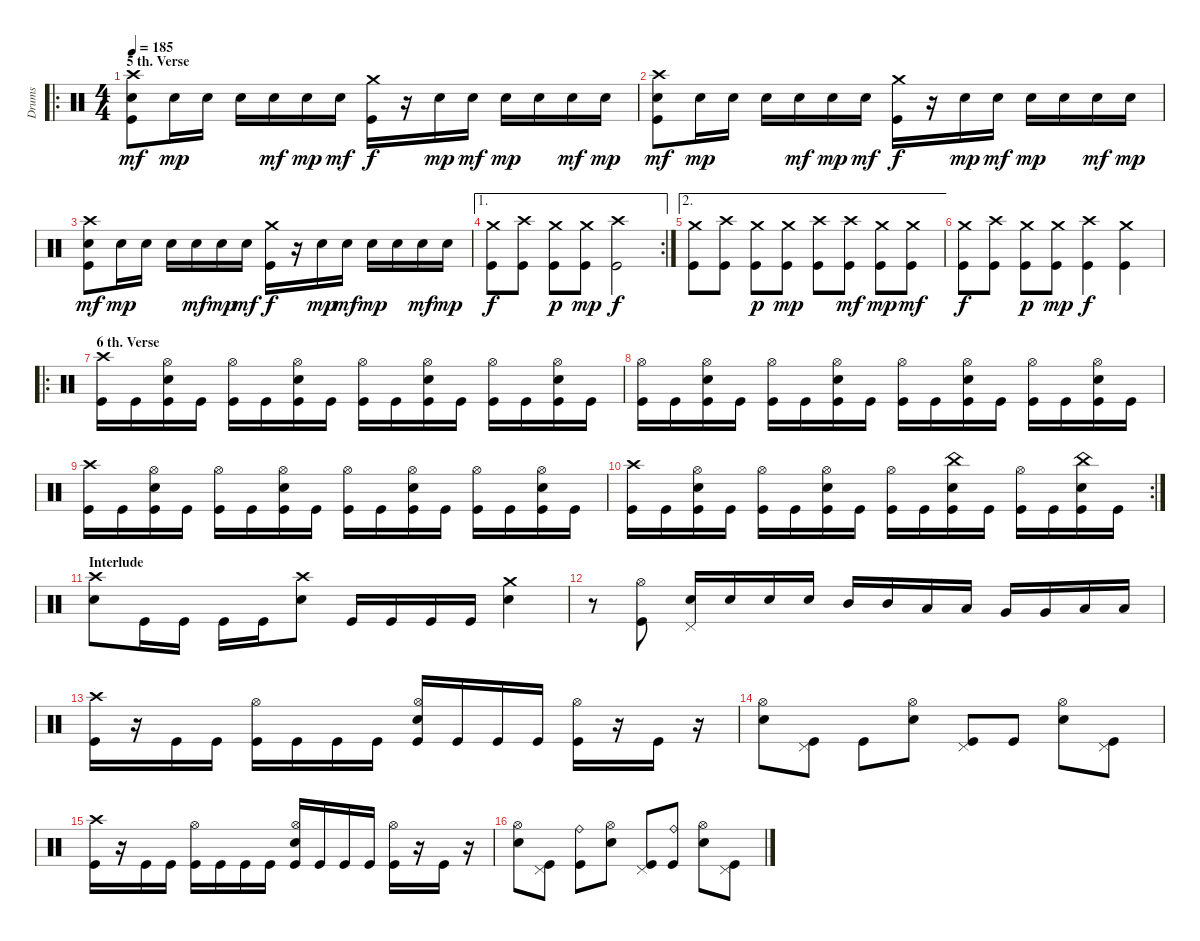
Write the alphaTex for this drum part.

\track ("Drums" "Drums") {instrument percussion}
\staff {score}
\articulation defaults
\ro
\ts (4 4)
\section ("" "5 th. Verse")
\tempo 185
\clef neutral
\ks c
("Crash high (hit)" "Snare (hit) 2" "Kick (hit)").8{dy mf} "Snare (hit) 2".16{dy mp} "Snare (hit) 2".16 "Snare (hit) 2".16 "Snare (hit) 2".16{dy mf} "Snare (hit) 2".16{dy mp} "Snare (hit) 2".16{dy mf} ("Crash medium (hit)" "Kick (hit)").16{dy f} r.16 "Snare (hit) 2".16{dy mp} "Snare (hit) 2".16{dy mf} "Snare (hit) 2".16{dy mp} "Snare (hit) 2".16 "Snare (hit) 2".16{dy mf} "Snare (hit) 2".16{dy mp} |
("Crash high (hit)" "Snare (hit) 2" "Kick (hit)").8{dy mf} "Snare (hit) 2".16{dy mp} "Snare (hit) 2".16 "Snare (hit) 2".16 "Snare (hit) 2".16{dy mf} "Snare (hit) 2".16{dy mp} "Snare (hit) 2".16{dy mf} ("Crash medium (hit)" "Kick (hit)").16{dy f} r.16 "Snare (hit) 2".16{dy mp} "Snare (hit) 2".16{dy mf} "Snare (hit) 2".16{dy mp} "Snare (hit) 2".16 "Snare (hit) 2".16{dy mf} "Snare (hit) 2".16{dy mp} |
("Crash high (hit)" "Snare (hit) 2" "Kick (hit)").8{dy mf} "Snare (hit) 2".16{dy mp} "Snare (hit) 2".16 "Snare (hit) 2".16 "Snare (hit) 2".16{dy mf} "Snare (hit) 2".16{dy mp} "Snare (hit) 2".16{dy mf} ("Crash medium (hit)" "Kick (hit)").16{dy f} r.16 "Snare (hit) 2".16{dy mp} "Snare (hit) 2".16{dy mf} "Snare (hit) 2".16{dy mp} "Snare (hit) 2".16 "Snare (hit) 2".16{dy mf} "Snare (hit) 2".16{dy mp} |
\ae 1
\rc 2
("Crash medium (hit)" "Kick (hit)").8{dy f} ("Crash high (hit)" "Kick (hit)").8 ("Crash medium (hit)" "Kick (hit)").8{dy p} ("Crash medium (hit)" "Kick (hit)").8{dy mp} ("Crash high (hit)" "Kick (hit)").2{dy f} |
\ae 2
("Crash medium (hit)" "Kick (hit)").8 ("Crash high (hit)" "Kick (hit)").8 ("Crash medium (hit)" "Kick (hit)").8{dy p} ("Crash medium (hit)" "Kick (hit)").8{dy mp} ("Crash high (hit)" "Kick (hit)").8 ("Crash high (hit)" "Kick (hit)").8{dy mf} ("Crash medium (hit)" "Kick (hit)").8{dy mp} ("Crash medium (hit)" "Kick (hit)").8{dy mf} |
("Crash medium (hit)" "Kick (hit)").8{dy f} ("Crash high (hit)" "Kick (hit)").8 ("Crash medium (hit)" "Kick (hit)").8{dy p} ("Crash medium (hit)" "Kick (hit)").8{dy mp} ("Crash high (hit)" "Kick (hit)").4{dy f} ("Crash medium (hit)" "Kick (hit)").4 |
\ro
\section ("" "6 th. Verse")
("Crash high (hit)" "Kick (hit)").16 "Kick (hit)".16 ("Hi-Hat (open)" "Electric Snare (hit)" "Kick (hit)").16 "Kick (hit)".16 ("Hi-Hat (open)" "Kick (hit)").16 "Kick (hit)".16 ("Hi-Hat (open)" "Electric Snare (hit)" "Kick (hit)").16 "Kick (hit)".16 ("Hi-Hat (open)" "Kick (hit)").16 "Kick (hit)".16 ("Hi-Hat (open)" "Electric Snare (hit)" "Kick (hit)").16 "Kick (hit)".16 ("Hi-Hat (open)" "Kick (hit)").16 "Kick (hit)".16 ("Hi-Hat (open)" "Electric Snare (hit)" "Kick (hit)").16 "Kick (hit)".16 |
("Hi-Hat (open)" "Kick (hit)").16 "Kick (hit)".16 ("Hi-Hat (open)" "Electric Snare (hit)" "Kick (hit)").16 "Kick (hit)".16 ("Hi-Hat (open)" "Kick (hit)").16 "Kick (hit)".16 ("Hi-Hat (open)" "Electric Snare (hit)" "Kick (hit)").16 "Kick (hit)".16 ("Hi-Hat (open)" "Kick (hit)").16 "Kick (hit)".16 ("Hi-Hat (open)" "Electric Snare (hit)" "Kick (hit)").16 "Kick (hit)".16 ("Hi-Hat (open)" "Kick (hit)").16 "Kick (hit)".16 ("Hi-Hat (open)" "Electric Snare (hit)" "Kick (hit)").16 "Kick (hit)".16 |
("Crash high (hit)" "Kick (hit)").16 "Kick (hit)".16 ("Hi-Hat (open)" "Electric Snare (hit)" "Kick (hit)").16 "Kick (hit)".16 ("Hi-Hat (open)" "Kick (hit)").16 "Kick (hit)".16 ("Hi-Hat (open)" "Electric Snare (hit)" "Kick (hit)").16 "Kick (hit)".16 ("Hi-Hat (open)" "Kick (hit)").16 "Kick (hit)".16 ("Hi-Hat (open)" "Electric Snare (hit)" "Kick (hit)").16 "Kick (hit)".16 ("Hi-Hat (open)" "Kick (hit)").16 "Kick (hit)".16 ("Hi-Hat (open)" "Electric Snare (hit)" "Kick (hit)").16 "Kick (hit)".16 |
\rc 2
("Crash high (hit)" "Kick (hit)").16 "Kick (hit)".16 ("Hi-Hat (open)" "Electric Snare (hit)" "Kick (hit)").16 "Kick (hit)".16 ("Hi-Hat (open)" "Kick (hit)").16 "Kick (hit)".16 ("Hi-Hat (open)" "Electric Snare (hit)" "Kick (hit)").16 "Kick (hit)".16 ("Hi-Hat (open)" "Kick (hit)").16 "Kick (hit)".16 ("China (hit)" "Electric Snare (hit)" "Kick (hit)").16 "Kick (hit)".16 ("Hi-Hat (open)" "Kick (hit)").16 "Kick (hit)".16 ("China (hit)" "Electric Snare (hit)" "Kick (hit)").16 "Kick (hit)".16 |
\section ("" "Interlude")
("Crash high (hit)" "Electric Snare (hit)").8 "Kick (hit)".16 "Kick (hit)".16 "Kick (hit)".16 "Kick (hit)".16 ("Crash high (hit)" "Electric Snare (hit)").8 "Kick (hit)".16 "Kick (hit)".16 "Kick (hit)".16 "Kick (hit)".16 ("Crash medium (hit)" "Electric Snare (hit)").4 |
r.8 ("Hi-Hat (open)" "Kick (hit)").8 ("Pedal Hi-Hat (hit)" "Electric Snare (hit)").16 "Electric Snare (hit)".16 "Electric Snare (hit)".16 "Electric Snare (hit)".16 "Mid Tom (hit)".16 "Mid Tom (hit)".16 "Low Tom (hit)".16 "Low Tom (hit)".16 "Very Low Tom (hit)".16 "Very Low Tom (hit)".16 "Low Floor Tom (hit)".16 "Low Floor Tom (hit)".16 |
("Crash high (hit)" "Kick (hit)").16 r.16 "Kick (hit)".16 "Kick (hit)".16 ("Hi-Hat (open)" "Kick (hit)").16 "Kick (hit)".16 "Kick (hit)".16 "Kick (hit)".16 ("Hi-Hat (open)" "Electric Snare (hit)" "Kick (hit)").16 "Kick (hit)".16 "Kick (hit)".16 "Kick (hit)".16 ("Hi-Hat (open)" "Kick (hit)").16 r.16 "Kick (hit)".16 r.16 |
("Hi-Hat (open)" "Electric Snare (hit)").8 ("Pedal Hi-Hat (hit)" "Kick (hit)").8 "Kick (hit)".8 ("Hi-Hat (open)" "Electric Snare (hit)").8 ("Pedal Hi-Hat (hit)" "Kick (hit)").8 "Kick (hit)".8 ("Hi-Hat (open)" "Electric Snare (hit)").8 ("Pedal Hi-Hat (hit)" "Kick (hit)").8 |
("Crash high (hit)" "Kick (hit)").16 r.16 "Kick (hit)".16 "Kick (hit)".16 ("Hi-Hat (open)" "Kick (hit)").16 "Kick (hit)".16 "Kick (hit)".16 "Kick (hit)".16 ("Hi-Hat (open)" "Electric Snare (hit)" "Kick (hit)").16 "Kick (hit)".16 "Kick (hit)".16 "Kick (hit)".16 ("Hi-Hat (open)" "Kick (hit)").16 r.16 "Kick (hit)".16 r.16 |
("Hi-Hat (open)" "Electric Snare (hit)").8 ("Pedal Hi-Hat (hit)" "Kick (hit)").8 ("Ride (bell)" "Kick (hit)").8 ("Hi-Hat (open)" "Electric Snare (hit)").8 ("Pedal Hi-Hat (hit)" "Kick (hit)").8 ("Ride (bell)" "Kick (hit)").8 ("Hi-Hat (open)" "Electric Snare (hit)").8 ("Pedal Hi-Hat (hit)" "Kick (hit)").8
